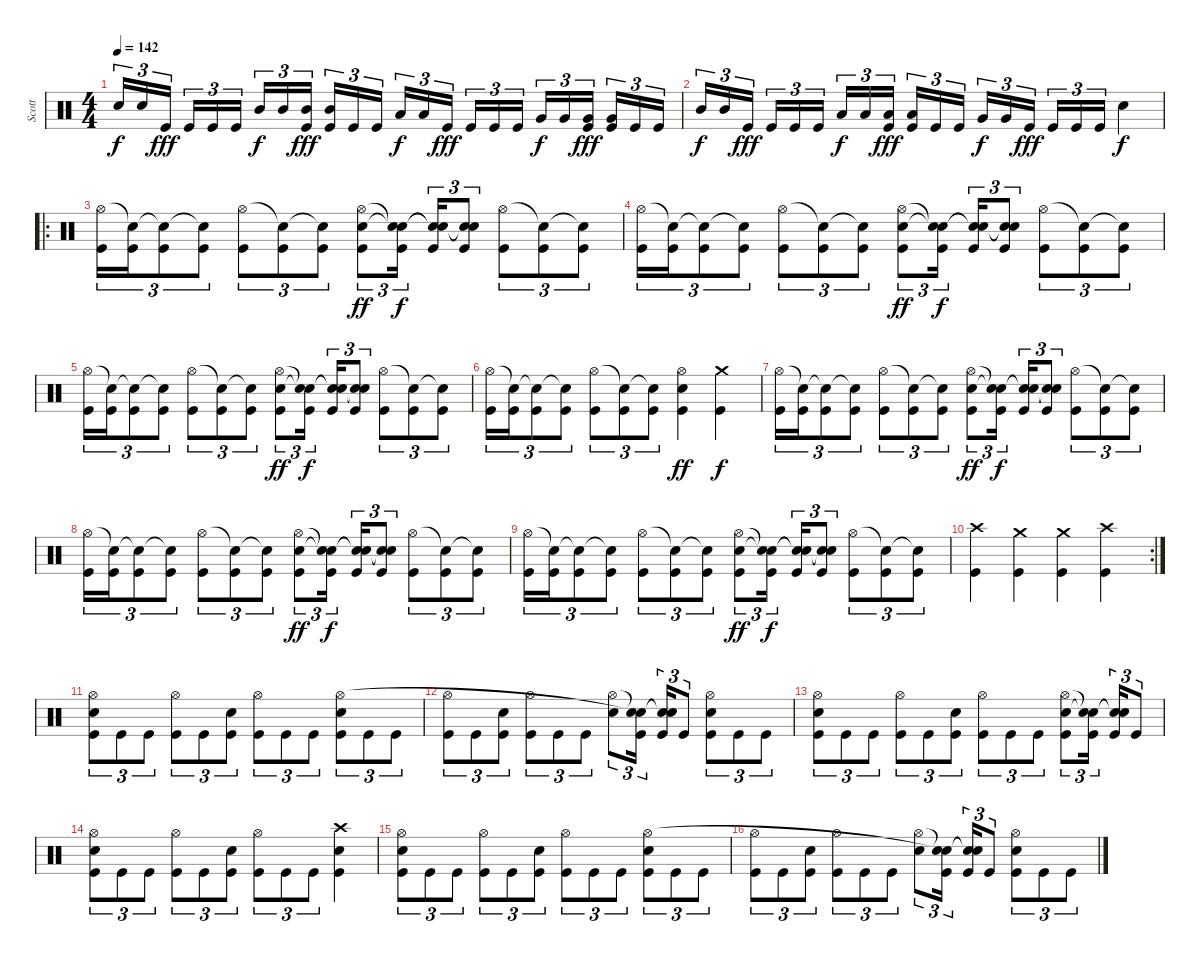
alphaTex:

\track ("Scott" "Scott") {instrument percussion}
\staff {score}
\articulation defaults
\ts (4 4)
\tempo 142
\clef neutral
\ks c "Snare (hit) 2".16{tu (3 2) dy f} "Snare (hit) 2".16{tu (3 2)} "Kick (hit)".16{tu (3 2) dy fff} "Kick (hit)".16{tu (3 2)} "Kick (hit)".16{tu (3 2)} "Kick (hit)".16{tu (3 2)} "Mid Tom (hit)".16{tu (3 2) dy f} "Mid Tom (hit)".16{tu (3 2)}
("Kick (hit)" "Mid Tom (hit)").16{tu (3 2) dy fff} ("Kick (hit)" "Mid Tom (hit)").16{tu (3 2)} "Kick (hit)".16{tu (3 2)} "Kick (hit)".16{tu (3 2)} "Low Tom (hit)".16{tu (3 2) dy f} "Low Tom (hit)".16{tu (3 2)} "Kick (hit)".16{tu (3 2) dy fff} "Kick (hit)".16{tu (3 2)} "Kick (hit)".16{tu (3 2)} "Kick (hit)".16{tu (3 2)} "Very Low Tom (hit)".16{tu (3 2) dy f} "Very Low Tom (hit)".16{tu (3 2)} ("Kick (hit)" "Very Low Tom (hit)").16{tu (3 2) dy fff} ("Kick (hit)" "Very Low Tom (hit)").16{tu (3 2)} "Kick (hit)".16{tu (3 2)} "Kick (hit)".16{tu (3 2)} |
"Mid Tom (hit)".16{tu (3 2) dy f} "Mid Tom (hit)".16{tu (3 2)} "Kick (hit)".16{tu (3 2) dy fff} "Kick (hit)".16{tu (3 2)} "Kick (hit)".16{tu (3 2)} "Kick (hit)".16{tu (3 2)} "Low Tom (hit)".16{tu (3 2) dy f} "Low Tom (hit)".16{tu (3 2)} ("Kick (hit)" "Low Tom (hit)").16{tu (3 2) dy fff} ("Kick (hit)" "Low Tom (hit)").16{tu (3 2)} "Kick (hit)".16{tu (3 2)} "Kick (hit)".16{tu (3 2)} "Very Low Tom (hit)".16{tu (3 2) dy f} "Very Low Tom (hit)".16{tu (3 2)} "Kick (hit)".16{tu (3 2) dy fff} "Kick (hit)".16{tu (3 2)} "Kick (hit)".16{tu (3 2)} "Kick (hit)".16{tu (3 2)} "Snare (hit) 2".4{dy f} |
\ro
("Kick (hit)" "Hi-Hat (open)").16{tu (3 2)} ("Kick (hit)" "Snare (hit)"{t}).16{tu (3 2)} ("Kick (hit)" "Snare (hit)"{t}).8{tu (3 2)} ("Kick (hit)" "Snare (hit)"{t}).8{tu (3 2)} ("Kick (hit)" "Hi-Hat (open)").8{tu (3 2)} ("Kick (hit)" "Snare (hit)"{t}).8{tu (3 2)} ("Kick (hit)" "Snare (hit)"{t}).8{tu (3 2)} ("Kick (hit)" "Snare (hit) 2" "Hi-Hat (open)").8{tu (3 2) dy ff} ("Kick (hit)" "Snare (hit)"{t} "Snare (hit)"{t}).16{tu (3 2) dy f} ("Kick (hit)" "Snare (hit)"{t} "Snare (hit)"{t}).16{tu (3 2)} ("Kick (hit)" "Snare (hit)"{t} "Snare (hit)"{t}).8{tu (3 2)} ("Kick (hit)" "Hi-Hat (open)").8{tu (3 2)} ("Kick (hit)" "Snare (hit)"{t}).8{tu (3 2)} ("Kick (hit)" "Snare (hit)"{t}).8{tu (3 2)} |
("Kick (hit)" "Hi-Hat (open)").16{tu (3 2)} ("Kick (hit)" "Snare (hit)"{t}).16{tu (3 2)} ("Kick (hit)" "Snare (hit)"{t}).8{tu (3 2)} ("Kick (hit)" "Snare (hit)"{t}).8{tu (3 2)} ("Kick (hit)" "Hi-Hat (open)").8{tu (3 2)} ("Kick (hit)" "Snare (hit)"{t}).8{tu (3 2)} ("Kick (hit)" "Snare (hit)"{t}).8{tu (3 2)} ("Kick (hit)" "Snare (hit) 2" "Hi-Hat (open)").8{tu (3 2) dy ff} ("Kick (hit)" "Snare (hit)"{t} "Snare (hit)"{t}).16{tu (3 2) dy f} ("Kick (hit)" "Snare (hit)"{t} "Snare (hit)"{t}).16{tu (3 2)} ("Kick (hit)" "Snare (hit)"{t} "Snare (hit)"{t}).8{tu (3 2)} ("Kick (hit)" "Hi-Hat (open)").8{tu (3 2)} ("Kick (hit)" "Snare (hit)"{t}).8{tu (3 2)} ("Kick (hit)" "Snare (hit)"{t}).8{tu (3 2)} |
("Kick (hit)" "Hi-Hat (open)").16{tu (3 2)} ("Kick (hit)" "Snare (hit)"{t}).16{tu (3 2)} ("Kick (hit)" "Snare (hit)"{t}).8{tu (3 2)} ("Kick (hit)" "Snare (hit)"{t}).8{tu (3 2)} ("Kick (hit)" "Hi-Hat (open)").8{tu (3 2)} ("Kick (hit)" "Snare (hit)"{t}).8{tu (3 2)} ("Kick (hit)" "Snare (hit)"{t}).8{tu (3 2)} ("Kick (hit)" "Snare (hit) 2" "Hi-Hat (open)").8{tu (3 2) dy ff} ("Kick (hit)" "Snare (hit)"{t} "Snare (hit)"{t}).16{tu (3 2) dy f} ("Kick (hit)" "Snare (hit)"{t} "Snare (hit)"{t}).16{tu (3 2)} ("Kick (hit)" "Snare (hit)"{t} "Snare (hit)"{t}).8{tu (3 2)} ("Kick (hit)" "Hi-Hat (open)").8{tu (3 2)} ("Kick (hit)" "Snare (hit)"{t}).8{tu (3 2)} ("Kick (hit)" "Snare (hit)"{t}).8{tu (3 2)} |
("Kick (hit)" "Hi-Hat (open)").16{tu (3 2)} ("Kick (hit)" "Snare (hit)"{t}).16{tu (3 2)} ("Kick (hit)" "Snare (hit)"{t}).8{tu (3 2)} ("Kick (hit)" "Snare (hit)"{t}).8{tu (3 2)} ("Kick (hit)" "Hi-Hat (open)").8{tu (3 2)} ("Kick (hit)" "Snare (hit)"{t}).8{tu (3 2)} ("Kick (hit)" "Snare (hit)"{t}).8{tu (3 2)} ("Kick (hit)" "Snare (hit) 2" "Hi-Hat (open)").4{dy ff} ("Kick (hit)" "Crash medium (hit)").4{dy f} |
("Kick (hit)" "Hi-Hat (open)").16{tu (3 2)} ("Kick (hit)" "Snare (hit)"{t}).16{tu (3 2)} ("Kick (hit)" "Snare (hit)"{t}).8{tu (3 2)} ("Kick (hit)" "Snare (hit)"{t}).8{tu (3 2)} ("Kick (hit)" "Hi-Hat (open)").8{tu (3 2)} ("Kick (hit)" "Snare (hit)"{t}).8{tu (3 2)} ("Kick (hit)" "Snare (hit)"{t}).8{tu (3 2)} ("Kick (hit)" "Snare (hit) 2" "Hi-Hat (open)").8{tu (3 2) dy ff} ("Kick (hit)" "Snare (hit)"{t} "Snare (hit)"{t}).16{tu (3 2) dy f} ("Kick (hit)" "Snare (hit)"{t} "Snare (hit)"{t}).16{tu (3 2)} ("Kick (hit)" "Snare (hit)"{t} "Snare (hit)"{t}).8{tu (3 2)} ("Kick (hit)" "Hi-Hat (open)").8{tu (3 2)} ("Kick (hit)" "Snare (hit)"{t}).8{tu (3 2)} ("Kick (hit)" "Snare (hit)"{t}).8{tu (3 2)} |
("Kick (hit)" "Hi-Hat (open)").16{tu (3 2)} ("Kick (hit)" "Snare (hit)"{t}).16{tu (3 2)} ("Kick (hit)" "Snare (hit)"{t}).8{tu (3 2)} ("Kick (hit)" "Snare (hit)"{t}).8{tu (3 2)} ("Kick (hit)" "Hi-Hat (open)").8{tu (3 2)} ("Kick (hit)" "Snare (hit)"{t}).8{tu (3 2)} ("Kick (hit)" "Snare (hit)"{t}).8{tu (3 2)} ("Kick (hit)" "Snare (hit) 2" "Hi-Hat (open)").8{tu (3 2) dy ff} ("Kick (hit)" "Snare (hit)"{t} "Snare (hit)"{t}).16{tu (3 2) dy f} ("Kick (hit)" "Snare (hit)"{t} "Snare (hit)"{t}).16{tu (3 2)} ("Kick (hit)" "Snare (hit)"{t} "Snare (hit)"{t}).8{tu (3 2)} ("Kick (hit)" "Hi-Hat (open)").8{tu (3 2)} ("Kick (hit)" "Snare (hit)"{t}).8{tu (3 2)} ("Kick (hit)" "Snare (hit)"{t}).8{tu (3 2)} |
("Kick (hit)" "Hi-Hat (open)").16{tu (3 2)} ("Kick (hit)" "Snare (hit)"{t}).16{tu (3 2)} ("Kick (hit)" "Snare (hit)"{t}).8{tu (3 2)} ("Kick (hit)" "Snare (hit)"{t}).8{tu (3 2)} ("Kick (hit)" "Hi-Hat (open)").8{tu (3 2)} ("Kick (hit)" "Snare (hit)"{t}).8{tu (3 2)} ("Kick (hit)" "Snare (hit)"{t}).8{tu (3 2)} ("Kick (hit)" "Snare (hit) 2" "Hi-Hat (open)").8{tu (3 2) dy ff} ("Kick (hit)" "Snare (hit)"{t} "Snare (hit)"{t}).16{tu (3 2) dy f} ("Kick (hit)" "Snare (hit)"{t} "Snare (hit)"{t}).16{tu (3 2)} ("Kick (hit)" "Snare (hit)"{t} "Snare (hit)"{t}).8{tu (3 2)} ("Kick (hit)" "Hi-Hat (open)").8{tu (3 2)} ("Kick (hit)" "Snare (hit)"{t}).8{tu (3 2)} ("Kick (hit)" "Snare (hit)"{t}).8{tu (3 2)} |
\rc 2
("Kick (hit)" "Crash high (hit)").4 ("Kick (hit)" "Crash medium (hit)").4 ("Kick (hit)" "Crash medium (hit)").4 ("Kick (hit)" "Crash high (hit)").4 |
("Kick (hit)" "Snare (hit) 2" "Hi-Hat (open)").8{tu (3 2)} "Kick (hit)".8{tu (3 2)} "Kick (hit)".8{tu (3 2)} ("Kick (hit)" "Hi-Hat (open)").8{tu (3 2)} "Kick (hit)".8{tu (3 2)} ("Kick (hit)" "Snare (hit) 2").8{tu (3 2)} ("Kick (hit)" "Hi-Hat (open)").8{tu (3 2)} "Kick (hit)".8{tu (3 2)} "Kick (hit)".8{tu (3 2)} ("Kick (hit)" "Snare (hit) 2" "Hi-Hat (open)").8{tu (3 2)} "Kick (hit)".8{tu (3 2)} "Kick (hit)".8{tu (3 2)} |
("Kick (hit)" "Hi-Hat (open)").8{tu (3 2)} "Kick (hit)".8{tu (3 2)} ("Kick (hit)" "Snare (hit) 2").8{tu (3 2)} ("Kick (hit)" "Hi-Hat (open)").8{tu (3 2)} "Kick (hit)".8{tu (3 2)} "Kick (hit)".8{tu (3 2)} ("Snare (hit) 2" "Hi-Hat (open)").8{tu (3 2)} ("Kick (hit)" "Snare (hit)"{t} "Snare (hit)"{t}).16{tu (3 2)} ("Kick (hit)" "Snare (hit)"{t} "Snare (hit)"{t}).16{tu (3 2)} "Kick (hit)".8{tu (3 2)} ("Kick (hit)" "Snare (hit) 2" "Hi-Hat (open)").8{tu (3 2)} "Kick (hit)".8{tu (3 2)} "Kick (hit)".8{tu (3 2)} |
("Kick (hit)" "Snare (hit) 2" "Hi-Hat (open)").8{tu (3 2)} "Kick (hit)".8{tu (3 2)} "Kick (hit)".8{tu (3 2)} ("Kick (hit)" "Hi-Hat (open)").8{tu (3 2)} "Kick (hit)".8{tu (3 2)} ("Kick (hit)" "Snare (hit) 2").8{tu (3 2)} ("Kick (hit)" "Hi-Hat (open)").8{tu (3 2)} "Kick (hit)".8{tu (3 2)} "Kick (hit)".8{tu (3 2)} ("Kick (hit)" "Snare (hit) 2" "Hi-Hat (open)").8{tu (3 2)} ("Kick (hit)" "Snare (hit)"{t} "Snare (hit)"{t}).16{tu (3 2)} ("Kick (hit)" "Snare (hit)"{t} "Snare (hit)"{t}).16{tu (3 2)} "Kick (hit)".8{tu (3 2)} |
("Kick (hit)" "Snare (hit) 2" "Hi-Hat (open)").8{tu (3 2)} "Kick (hit)".8{tu (3 2)} "Kick (hit)".8{tu (3 2)} ("Kick (hit)" "Hi-Hat (open)").8{tu (3 2)} "Kick (hit)".8{tu (3 2)} ("Kick (hit)" "Snare (hit) 2").8{tu (3 2)} ("Kick (hit)" "Hi-Hat (open)").8{tu (3 2)} "Kick (hit)".8{tu (3 2)} "Kick (hit)".8{tu (3 2)} ("Kick (hit)" "Snare (hit) 2" "Crash high (hit)").4 |
("Kick (hit)" "Snare (hit) 2" "Hi-Hat (open)").8{tu (3 2)} "Kick (hit)".8{tu (3 2)} "Kick (hit)".8{tu (3 2)} ("Kick (hit)" "Hi-Hat (open)").8{tu (3 2)} "Kick (hit)".8{tu (3 2)} ("Kick (hit)" "Snare (hit) 2").8{tu (3 2)} ("Kick (hit)" "Hi-Hat (open)").8{tu (3 2)} "Kick (hit)".8{tu (3 2)} "Kick (hit)".8{tu (3 2)} ("Kick (hit)" "Snare (hit) 2" "Hi-Hat (open)").8{tu (3 2)} "Kick (hit)".8{tu (3 2)} "Kick (hit)".8{tu (3 2)} |
("Kick (hit)" "Hi-Hat (open)").8{tu (3 2)} "Kick (hit)".8{tu (3 2)} ("Kick (hit)" "Snare (hit) 2").8{tu (3 2)} ("Kick (hit)" "Hi-Hat (open)").8{tu (3 2)} "Kick (hit)".8{tu (3 2)} "Kick (hit)".8{tu (3 2)} ("Snare (hit) 2" "Hi-Hat (open)").8{tu (3 2)} ("Kick (hit)" "Snare (hit)"{t} "Snare (hit)"{t}).16{tu (3 2)} ("Kick (hit)" "Snare (hit)"{t} "Snare (hit)"{t}).16{tu (3 2)} "Kick (hit)".8{tu (3 2)} ("Kick (hit)" "Snare (hit) 2" "Hi-Hat (open)").8{tu (3 2)} "Kick (hit)".8{tu (3 2)} "Kick (hit)".8{tu (3 2)}
